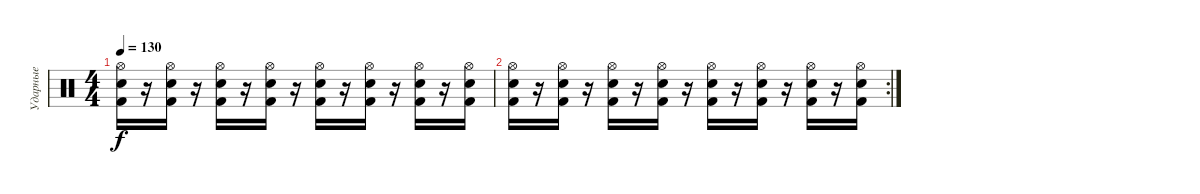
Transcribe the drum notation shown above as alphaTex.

\track ("Ударные" "Ударные") {instrument percussion}
\staff {score}
\articulation defaults
\ts (4 4)
\tempo 130
\clef neutral
\ks c
("Hi-Hat (open)" "Electric Snare (hit)" "Kick (hit) 2").16{dy f} r.16 ("Hi-Hat (open)" "Electric Snare (hit)" "Kick (hit) 2").16 r.16 ("Hi-Hat (open)" "Electric Snare (hit)" "Kick (hit) 2").16 r.16 ("Hi-Hat (open)" "Electric Snare (hit)" "Kick (hit) 2").16 r.16 ("Hi-Hat (open)" "Electric Snare (hit)" "Kick (hit) 2").16 r.16 ("Hi-Hat (open)" "Electric Snare (hit)" "Kick (hit) 2").16 r.16 ("Hi-Hat (open)" "Electric Snare (hit)" "Kick (hit) 2").16 r.16 ("Hi-Hat (open)" "Electric Snare (hit)" "Kick (hit) 2").16 |
\rc 2
("Hi-Hat (open)" "Electric Snare (hit)" "Kick (hit) 2").16 r.16 ("Hi-Hat (open)" "Electric Snare (hit)" "Kick (hit) 2").16 r.16 ("Hi-Hat (open)" "Electric Snare (hit)" "Kick (hit) 2").16 r.16 ("Hi-Hat (open)" "Electric Snare (hit)" "Kick (hit) 2").16 r.16 ("Hi-Hat (open)" "Electric Snare (hit)" "Kick (hit) 2").16 r.16 ("Hi-Hat (open)" "Electric Snare (hit)" "Kick (hit) 2").16 r.16 ("Hi-Hat (open)" "Electric Snare (hit)" "Kick (hit) 2").16 r.16 ("Hi-Hat (open)" "Electric Snare (hit)" "Kick (hit) 2").16
